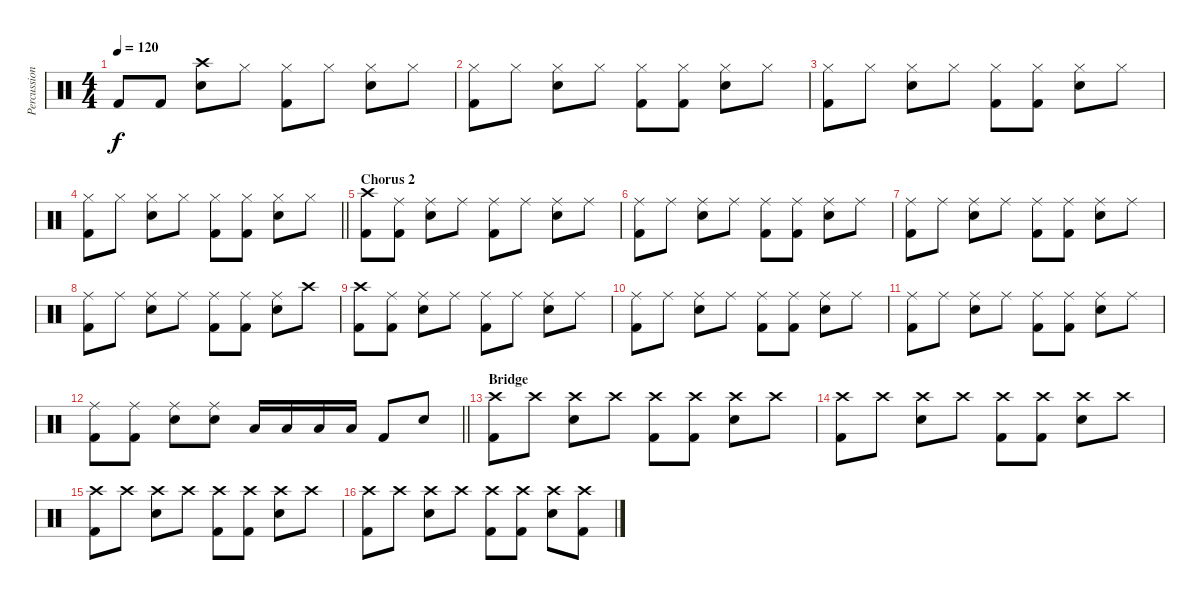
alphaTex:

\track ("Percussion" "Percussion") {instrument percussion}
\staff {score}
\articulation defaults
\ts (4 4)
\tempo 120
\clef neutral
\ks c "Kick (hit) 2".8{dy f} "Kick (hit) 2".8
("Crash high (hit)" "Snare (hit) 2").8 "Hi-Hat (closed)".8 ("Hi-Hat (closed)" "Kick (hit) 2").8 "Hi-Hat (closed)".8 ("Hi-Hat (closed)" "Snare (hit) 2").8 "Hi-Hat (closed)".8 |
("Hi-Hat (closed)" "Kick (hit) 2").8 "Hi-Hat (closed)".8 ("Hi-Hat (closed)" "Snare (hit) 2").8 "Hi-Hat (closed)".8 ("Hi-Hat (closed)" "Kick (hit) 2").8 ("Hi-Hat (closed)" "Kick (hit) 2").8 ("Hi-Hat (closed)" "Snare (hit) 2").8 "Hi-Hat (closed)".8 |
("Hi-Hat (closed)" "Kick (hit) 2").8 "Hi-Hat (closed)".8 ("Hi-Hat (closed)" "Snare (hit) 2").8 "Hi-Hat (closed)".8 ("Hi-Hat (closed)" "Kick (hit) 2").8 ("Hi-Hat (closed)" "Kick (hit) 2").8 ("Hi-Hat (closed)" "Snare (hit) 2").8 "Hi-Hat (closed)".8 |
\barLineRight lightlight
("Hi-Hat (closed)" "Kick (hit) 2").8 "Hi-Hat (closed)".8 ("Hi-Hat (closed)" "Snare (hit) 2").8 "Hi-Hat (closed)".8 ("Hi-Hat (closed)" "Kick (hit) 2").8 ("Hi-Hat (closed)" "Kick (hit) 2").8 ("Hi-Hat (closed)" "Snare (hit) 2").8 "Hi-Hat (closed)".8 |
\section ("" "Chorus 2")
("Crash high (hit)" "Kick (hit) 2").8 ("Kick (hit) 2" "Ride (middle)").8 ("Snare (hit) 2" "Ride (middle)").8 "Ride (middle)".8 ("Kick (hit) 2" "Ride (middle)").8 "Ride (middle)".8 ("Snare (hit) 2" "Ride (middle)").8 "Ride (middle)".8 |
("Kick (hit) 2" "Ride (middle)").8 "Ride (middle)".8 ("Snare (hit) 2" "Ride (middle)").8 "Ride (middle)".8 ("Kick (hit) 2" "Ride (middle)").8 ("Kick (hit) 2" "Ride (middle)").8 ("Snare (hit) 2" "Ride (middle)").8 "Ride (middle)".8 |
("Kick (hit) 2" "Ride (middle)").8 "Ride (middle)".8 ("Snare (hit) 2" "Ride (middle)").8 "Ride (middle)".8 ("Kick (hit) 2" "Ride (middle)").8 ("Kick (hit) 2" "Ride (middle)").8 ("Snare (hit) 2" "Ride (middle)").8 "Ride (middle)".8 |
("Kick (hit) 2" "Ride (middle)").8 "Ride (middle)".8 ("Snare (hit) 2" "Ride (middle)").8 "Ride (middle)".8 ("Kick (hit) 2" "Ride (middle)").8 ("Kick (hit) 2" "Ride (middle)").8 ("Snare (hit) 2" "Ride (middle)").8 "Crash high (hit)".8 |
("Crash high (hit)" "Kick (hit) 2").8 ("Kick (hit) 2" "Ride (middle)").8 ("Snare (hit) 2" "Ride (middle)").8 "Ride (middle)".8 ("Kick (hit) 2" "Ride (middle)").8 "Ride (middle)".8 ("Snare (hit) 2" "Ride (middle)").8 "Ride (middle)".8 |
("Kick (hit) 2" "Ride (middle)").8 "Ride (middle)".8 ("Snare (hit) 2" "Ride (middle)").8 "Ride (middle)".8 ("Kick (hit) 2" "Ride (middle)").8 ("Kick (hit) 2" "Ride (middle)").8 ("Snare (hit) 2" "Ride (middle)").8 "Ride (middle)".8 |
("Kick (hit) 2" "Ride (middle)").8 "Ride (middle)".8 ("Snare (hit) 2" "Ride (middle)").8 "Ride (middle)".8 ("Kick (hit) 2" "Ride (middle)").8 ("Kick (hit) 2" "Ride (middle)").8 ("Snare (hit) 2" "Ride (middle)").8 "Ride (middle)".8 |
\barLineRight lightlight
("Kick (hit) 2" "Ride (middle)").8 ("Kick (hit) 2" "Ride (middle)").8 ("Snare (hit) 2" "Ride (middle)").8 ("Snare (hit) 2" "Ride (middle)").8 "Low Floor Tom (hit)".16 "Low Floor Tom (hit)".16 "Low Floor Tom (hit)".16 "Low Floor Tom (hit)".16 "Kick (hit) 2".8 "Snare (hit) 2".8 |
\section ("" "Bridge")
("Crash high (hit)" "Kick (hit) 2").8 "Crash high (hit)".8 ("Crash high (hit)" "Snare (hit) 2").8 "Crash high (hit)".8 ("Crash high (hit)" "Kick (hit) 2").8 ("Crash high (hit)" "Kick (hit) 2").8 ("Crash high (hit)" "Snare (hit) 2").8 "Crash high (hit)".8 |
("Crash high (hit)" "Kick (hit) 2").8 "Crash high (hit)".8 ("Crash high (hit)" "Snare (hit) 2").8 "Crash high (hit)".8 ("Crash high (hit)" "Kick (hit) 2").8 ("Crash high (hit)" "Kick (hit) 2").8 ("Crash high (hit)" "Snare (hit) 2").8 "Crash high (hit)".8 |
("Crash high (hit)" "Kick (hit) 2").8 "Crash high (hit)".8 ("Crash high (hit)" "Snare (hit) 2").8 "Crash high (hit)".8 ("Crash high (hit)" "Kick (hit) 2").8 ("Crash high (hit)" "Kick (hit) 2").8 ("Crash high (hit)" "Snare (hit) 2").8 "Crash high (hit)".8 |
("Crash high (hit)" "Kick (hit) 2").8 "Crash high (hit)".8 ("Crash high (hit)" "Snare (hit) 2").8 "Crash high (hit)".8 ("Crash high (hit)" "Kick (hit) 2").8 ("Crash high (hit)" "Kick (hit) 2").8 ("Crash high (hit)" "Snare (hit) 2").8 ("Crash high (hit)" "Kick (hit) 2").8
